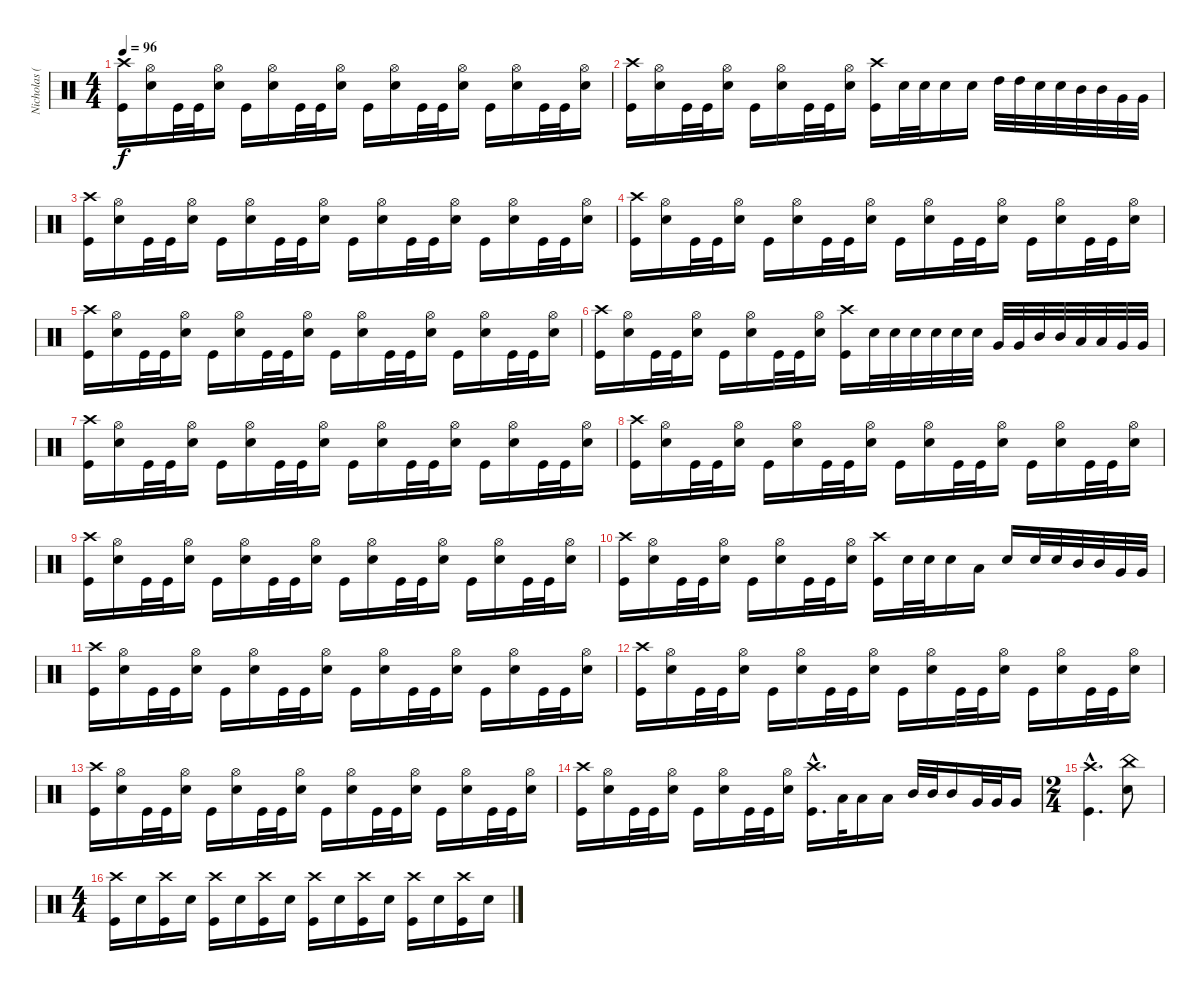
\track ("Nicholas (Drums)" "Nicholas (") {instrument percussion}
\staff {score}
\articulation defaults
\ts (4 4)
\tempo 96
\clef neutral
\ks c
("Crash high (hit)" "Kick (hit)").16{dy f} ("Hi-Hat (open)" "Electric Snare (hit)").16 "Kick (hit)".32 "Kick (hit)".32 ("Hi-Hat (open)" "Electric Snare (hit)").16 "Kick (hit)".16 ("Hi-Hat (open)" "Electric Snare (hit)").16 "Kick (hit)".32 "Kick (hit)".32 ("Hi-Hat (open)" "Electric Snare (hit)").16 "Kick (hit)".16 ("Hi-Hat (open)" "Electric Snare (hit)").16 "Kick (hit)".32 "Kick (hit)".32 ("Hi-Hat (open)" "Electric Snare (hit)").16 "Kick (hit)".16 ("Hi-Hat (open)" "Electric Snare (hit)").16 "Kick (hit)".32 "Kick (hit)".32 ("Hi-Hat (open)" "Electric Snare (hit)").16 |
("Crash high (hit)" "Kick (hit)").16 ("Hi-Hat (open)" "Electric Snare (hit)").16 "Kick (hit)".32 "Kick (hit)".32 ("Hi-Hat (open)" "Electric Snare (hit)").16 "Kick (hit)".16 ("Hi-Hat (open)" "Electric Snare (hit)").16 "Kick (hit)".32 "Kick (hit)".32 ("Hi-Hat (open)" "Electric Snare (hit)").16 ("Crash high (hit)" "Kick (hit)").16 "Electric Snare (hit)".32 "Electric Snare (hit)".32 "Electric Snare (hit)".16 "Electric Snare (hit)".16 "High Tom (hit)".32 "High Tom (hit)".32 "Electric Snare (hit)".32 "Electric Snare (hit)".32 "Mid Tom (hit)".32 "Mid Tom (hit)".32 "Very Low Tom (hit)".32 "Very Low Tom (hit)".32 |
("Crash high (hit)" "Kick (hit)").16 ("Hi-Hat (open)" "Electric Snare (hit)").16 "Kick (hit)".32 "Kick (hit)".32 ("Hi-Hat (open)" "Electric Snare (hit)").16 "Kick (hit)".16 ("Hi-Hat (open)" "Electric Snare (hit)").16 "Kick (hit)".32 "Kick (hit)".32 ("Hi-Hat (open)" "Electric Snare (hit)").16 "Kick (hit)".16 ("Hi-Hat (open)" "Electric Snare (hit)").16 "Kick (hit)".32 "Kick (hit)".32 ("Hi-Hat (open)" "Electric Snare (hit)").16 "Kick (hit)".16 ("Hi-Hat (open)" "Electric Snare (hit)").16 "Kick (hit)".32 "Kick (hit)".32 ("Hi-Hat (open)" "Electric Snare (hit)").16 |
("Crash high (hit)" "Kick (hit)").16 ("Hi-Hat (open)" "Electric Snare (hit)").16 "Kick (hit)".32 "Kick (hit)".32 ("Hi-Hat (open)" "Electric Snare (hit)").16 "Kick (hit)".16 ("Hi-Hat (open)" "Electric Snare (hit)").16 "Kick (hit)".32 "Kick (hit)".32 ("Hi-Hat (open)" "Electric Snare (hit)").16 "Kick (hit)".16 ("Hi-Hat (open)" "Electric Snare (hit)").16 "Kick (hit)".32 "Kick (hit)".32 ("Hi-Hat (open)" "Electric Snare (hit)").16 "Kick (hit)".16 ("Hi-Hat (open)" "Electric Snare (hit)").16 "Kick (hit)".32 "Kick (hit)".32 ("Hi-Hat (open)" "Electric Snare (hit)").16 |
("Crash high (hit)" "Kick (hit)").16 ("Hi-Hat (open)" "Electric Snare (hit)").16 "Kick (hit)".32 "Kick (hit)".32 ("Hi-Hat (open)" "Electric Snare (hit)").16 "Kick (hit)".16 ("Hi-Hat (open)" "Electric Snare (hit)").16 "Kick (hit)".32 "Kick (hit)".32 ("Hi-Hat (open)" "Electric Snare (hit)").16 "Kick (hit)".16 ("Hi-Hat (open)" "Electric Snare (hit)").16 "Kick (hit)".32 "Kick (hit)".32 ("Hi-Hat (open)" "Electric Snare (hit)").16 "Kick (hit)".16 ("Hi-Hat (open)" "Electric Snare (hit)").16 "Kick (hit)".32 "Kick (hit)".32 ("Hi-Hat (open)" "Electric Snare (hit)").16 |
("Crash high (hit)" "Kick (hit)").16 ("Hi-Hat (open)" "Electric Snare (hit)").16 "Kick (hit)".32 "Kick (hit)".32 ("Hi-Hat (open)" "Electric Snare (hit)").16 "Kick (hit)".16 ("Hi-Hat (open)" "Electric Snare (hit)").16 "Kick (hit)".32 "Kick (hit)".32 ("Hi-Hat (open)" "Electric Snare (hit)").16 ("Crash high (hit)" "Kick (hit)").16 "Electric Snare (hit)".32 "Electric Snare (hit)".32 "Electric Snare (hit)".32 "Electric Snare (hit)".32 "Electric Snare (hit)".32 "Electric Snare (hit)".32 "Very Low Tom (hit)".32 "Very Low Tom (hit)".32 "Mid Tom (hit)".32 "Mid Tom (hit)".32 "Low Tom (hit)".32 "Low Tom (hit)".32 "Very Low Tom (hit)".32 "Very Low Tom (hit)".32 |
("Crash high (hit)" "Kick (hit)").16 ("Hi-Hat (open)" "Electric Snare (hit)").16 "Kick (hit)".32 "Kick (hit)".32 ("Hi-Hat (open)" "Electric Snare (hit)").16 "Kick (hit)".16 ("Hi-Hat (open)" "Electric Snare (hit)").16 "Kick (hit)".32 "Kick (hit)".32 ("Hi-Hat (open)" "Electric Snare (hit)").16 "Kick (hit)".16 ("Hi-Hat (open)" "Electric Snare (hit)").16 "Kick (hit)".32 "Kick (hit)".32 ("Hi-Hat (open)" "Electric Snare (hit)").16 "Kick (hit)".16 ("Hi-Hat (open)" "Electric Snare (hit)").16 "Kick (hit)".32 "Kick (hit)".32 ("Hi-Hat (open)" "Electric Snare (hit)").16 |
("Crash high (hit)" "Kick (hit)").16 ("Hi-Hat (open)" "Electric Snare (hit)").16 "Kick (hit)".32 "Kick (hit)".32 ("Hi-Hat (open)" "Electric Snare (hit)").16 "Kick (hit)".16 ("Hi-Hat (open)" "Electric Snare (hit)").16 "Kick (hit)".32 "Kick (hit)".32 ("Hi-Hat (open)" "Electric Snare (hit)").16 "Kick (hit)".16 ("Hi-Hat (open)" "Electric Snare (hit)").16 "Kick (hit)".32 "Kick (hit)".32 ("Hi-Hat (open)" "Electric Snare (hit)").16 "Kick (hit)".16 ("Hi-Hat (open)" "Electric Snare (hit)").16 "Kick (hit)".32 "Kick (hit)".32 ("Hi-Hat (open)" "Electric Snare (hit)").16 |
("Crash high (hit)" "Kick (hit)").16 ("Hi-Hat (open)" "Electric Snare (hit)").16 "Kick (hit)".32 "Kick (hit)".32 ("Hi-Hat (open)" "Electric Snare (hit)").16 "Kick (hit)".16 ("Hi-Hat (open)" "Electric Snare (hit)").16 "Kick (hit)".32 "Kick (hit)".32 ("Hi-Hat (open)" "Electric Snare (hit)").16 "Kick (hit)".16 ("Hi-Hat (open)" "Electric Snare (hit)").16 "Kick (hit)".32 "Kick (hit)".32 ("Hi-Hat (open)" "Electric Snare (hit)").16 "Kick (hit)".16 ("Hi-Hat (open)" "Electric Snare (hit)").16 "Kick (hit)".32 "Kick (hit)".32 ("Hi-Hat (open)" "Electric Snare (hit)").16 |
("Crash high (hit)" "Kick (hit)").16 ("Hi-Hat (open)" "Electric Snare (hit)").16 "Kick (hit)".32 "Kick (hit)".32 ("Hi-Hat (open)" "Electric Snare (hit)").16 "Kick (hit)".16 ("Hi-Hat (open)" "Electric Snare (hit)").16 "Kick (hit)".32 "Kick (hit)".32 ("Hi-Hat (open)" "Electric Snare (hit)").16 ("Crash high (hit)" "Kick (hit)").16 "Electric Snare (hit)".32 "Electric Snare (hit)".32 "Electric Snare (hit)".16 "Low Tom (hit)".16 "Electric Snare (hit)".16 "Electric Snare (hit)".32 "Electric Snare (hit)".32 "Mid Tom (hit)".32 "Mid Tom (hit)".32 "Very Low Tom (hit)".32 "Very Low Tom (hit)".32 |
("Crash high (hit)" "Kick (hit)").16 ("Hi-Hat (open)" "Electric Snare (hit)").16 "Kick (hit)".32 "Kick (hit)".32 ("Hi-Hat (open)" "Electric Snare (hit)").16 "Kick (hit)".16 ("Hi-Hat (open)" "Electric Snare (hit)").16 "Kick (hit)".32 "Kick (hit)".32 ("Hi-Hat (open)" "Electric Snare (hit)").16 "Kick (hit)".16 ("Hi-Hat (open)" "Electric Snare (hit)").16 "Kick (hit)".32 "Kick (hit)".32 ("Hi-Hat (open)" "Electric Snare (hit)").16 "Kick (hit)".16 ("Hi-Hat (open)" "Electric Snare (hit)").16 "Kick (hit)".32 "Kick (hit)".32 ("Hi-Hat (open)" "Electric Snare (hit)").16 |
("Crash high (hit)" "Kick (hit)").16 ("Hi-Hat (open)" "Electric Snare (hit)").16 "Kick (hit)".32 "Kick (hit)".32 ("Hi-Hat (open)" "Electric Snare (hit)").16 "Kick (hit)".16 ("Hi-Hat (open)" "Electric Snare (hit)").16 "Kick (hit)".32 "Kick (hit)".32 ("Hi-Hat (open)" "Electric Snare (hit)").16 "Kick (hit)".16 ("Hi-Hat (open)" "Electric Snare (hit)").16 "Kick (hit)".32 "Kick (hit)".32 ("Hi-Hat (open)" "Electric Snare (hit)").16 "Kick (hit)".16 ("Hi-Hat (open)" "Electric Snare (hit)").16 "Kick (hit)".32 "Kick (hit)".32 ("Hi-Hat (open)" "Electric Snare (hit)").16 |
("Crash high (hit)" "Kick (hit)").16 ("Hi-Hat (open)" "Electric Snare (hit)").16 "Kick (hit)".32 "Kick (hit)".32 ("Hi-Hat (open)" "Electric Snare (hit)").16 "Kick (hit)".16 ("Hi-Hat (open)" "Electric Snare (hit)").16 "Kick (hit)".32 "Kick (hit)".32 ("Hi-Hat (open)" "Electric Snare (hit)").16 "Kick (hit)".16 ("Hi-Hat (open)" "Electric Snare (hit)").16 "Kick (hit)".32 "Kick (hit)".32 ("Hi-Hat (open)" "Electric Snare (hit)").16 "Kick (hit)".16 ("Hi-Hat (open)" "Electric Snare (hit)").16 "Kick (hit)".32 "Kick (hit)".32 ("Hi-Hat (open)" "Electric Snare (hit)").16 |
("Crash high (hit)" "Kick (hit)").16 ("Hi-Hat (open)" "Electric Snare (hit)").16 "Kick (hit)".32 "Kick (hit)".32 ("Hi-Hat (open)" "Electric Snare (hit)").16 "Kick (hit)".16 ("Hi-Hat (open)" "Electric Snare (hit)").16 "Kick (hit)".32 "Kick (hit)".32 ("Hi-Hat (open)" "Electric Snare (hit)").16 ("Crash high (hit)"{hac} "Kick (hit)"{hac}).16{d} "Low Tom (hit)".32 "Low Tom (hit)".16 "Low Tom (hit)".16 "Mid Tom (hit)".32 "Mid Tom (hit)".32 "Mid Tom (hit)".16 "Very Low Tom (hit)".32 "Very Low Tom (hit)".32 "Very Low Tom (hit)".16 |
\ts (2 4)
("Crash high (hit)"{hac} "Kick (hit)"{hac}).4{d} ("China (hit)" "Electric Snare (hit)").8 |
\ts (4 4)
("Crash high (hit)" "Kick (hit)").16 "Electric Snare (hit)".16 ("Crash high (hit)" "Kick (hit)").16 "Electric Snare (hit)".16 ("Crash high (hit)" "Kick (hit)").16 "Electric Snare (hit)".16 ("Crash high (hit)" "Kick (hit)").16 "Electric Snare (hit)".16 ("Crash high (hit)" "Kick (hit)").16 "Electric Snare (hit)".16 ("Crash high (hit)" "Kick (hit)").16 "Electric Snare (hit)".16 ("Crash high (hit)" "Kick (hit)").16 "Electric Snare (hit)".16 ("Crash high (hit)" "Kick (hit)").16 "Electric Snare (hit)".16
